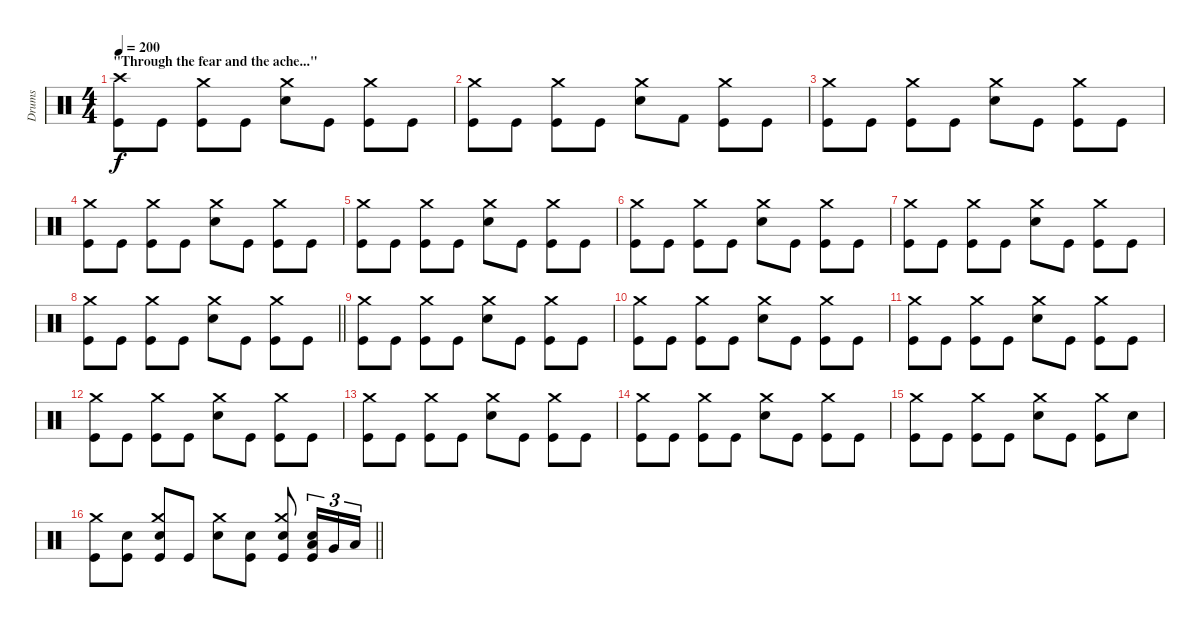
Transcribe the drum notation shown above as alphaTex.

\track ("Drums" "Drums") {instrument percussion}
\staff {score}
\articulation defaults
\ts (4 4)
\section ("" "\"Through the fear and the ache...\"")
\tempo 200
\clef neutral
\ks c
("Crash high (hit)" "Kick (hit)").8{dy f} "Kick (hit)".8 ("Crash medium (hit)" "Kick (hit)").8 "Kick (hit)".8 ("Crash medium (hit)" "Snare (hit) 2").8 "Kick (hit)".8 ("Crash medium (hit)" "Kick (hit)").8 "Kick (hit)".8 |
("Crash medium (hit)" "Kick (hit)").8 "Kick (hit)".8 ("Crash medium (hit)" "Kick (hit)").8 "Kick (hit)".8 ("Crash medium (hit)" "Snare (hit) 2").8 "Kick (hit) 2".8 ("Crash medium (hit)" "Kick (hit)").8 "Kick (hit)".8 |
("Crash medium (hit)" "Kick (hit)").8 "Kick (hit)".8 ("Crash medium (hit)" "Kick (hit)").8 "Kick (hit)".8 ("Crash medium (hit)" "Snare (hit) 2").8 "Kick (hit)".8 ("Crash medium (hit)" "Kick (hit)").8 "Kick (hit)".8 |
("Crash medium (hit)" "Kick (hit)").8 "Kick (hit)".8 ("Crash medium (hit)" "Kick (hit)").8 "Kick (hit)".8 ("Crash medium (hit)" "Snare (hit) 2").8 "Kick (hit)".8 ("Crash medium (hit)" "Kick (hit)").8 "Kick (hit)".8 |
("Crash medium (hit)" "Kick (hit)").8 "Kick (hit)".8 ("Crash medium (hit)" "Kick (hit)").8 "Kick (hit)".8 ("Crash medium (hit)" "Snare (hit) 2").8 "Kick (hit)".8 ("Crash medium (hit)" "Kick (hit)").8 "Kick (hit)".8 |
("Crash medium (hit)" "Kick (hit)").8 "Kick (hit)".8 ("Crash medium (hit)" "Kick (hit)").8 "Kick (hit)".8 ("Crash medium (hit)" "Snare (hit) 2").8 "Kick (hit)".8 ("Crash medium (hit)" "Kick (hit)").8 "Kick (hit)".8 |
("Crash medium (hit)" "Kick (hit)").8 "Kick (hit)".8 ("Crash medium (hit)" "Kick (hit)").8 "Kick (hit)".8 ("Crash medium (hit)" "Snare (hit) 2").8 "Kick (hit)".8 ("Crash medium (hit)" "Kick (hit)").8 "Kick (hit)".8 |
\barLineRight lightlight
("Crash medium (hit)" "Kick (hit)").8 "Kick (hit)".8 ("Crash medium (hit)" "Kick (hit)").8 "Kick (hit)".8 ("Crash medium (hit)" "Snare (hit) 2").8 "Kick (hit)".8 ("Crash medium (hit)" "Kick (hit)").8 "Kick (hit)".8 |
("Crash medium (hit)" "Kick (hit)").8 "Kick (hit)".8 ("Crash medium (hit)" "Kick (hit)").8 "Kick (hit)".8 ("Crash medium (hit)" "Snare (hit) 2").8 "Kick (hit)".8 ("Crash medium (hit)" "Kick (hit)").8 "Kick (hit)".8 |
("Crash medium (hit)" "Kick (hit)").8 "Kick (hit)".8 ("Crash medium (hit)" "Kick (hit)").8 "Kick (hit)".8 ("Crash medium (hit)" "Snare (hit) 2").8 "Kick (hit)".8 ("Crash medium (hit)" "Kick (hit)").8 "Kick (hit)".8 |
("Crash medium (hit)" "Kick (hit)").8 "Kick (hit)".8 ("Crash medium (hit)" "Kick (hit)").8 "Kick (hit)".8 ("Crash medium (hit)" "Snare (hit) 2").8 "Kick (hit)".8 ("Crash medium (hit)" "Kick (hit)").8 "Kick (hit)".8 |
("Crash medium (hit)" "Kick (hit)").8 "Kick (hit)".8 ("Crash medium (hit)" "Kick (hit)").8 "Kick (hit)".8 ("Crash medium (hit)" "Snare (hit) 2").8 "Kick (hit)".8 ("Crash medium (hit)" "Kick (hit)").8 "Kick (hit)".8 |
("Crash medium (hit)" "Kick (hit)").8 "Kick (hit)".8 ("Crash medium (hit)" "Kick (hit)").8 "Kick (hit)".8 ("Crash medium (hit)" "Snare (hit) 2").8 "Kick (hit)".8 ("Crash medium (hit)" "Kick (hit)").8 "Kick (hit)".8 |
("Crash medium (hit)" "Kick (hit)").8 "Kick (hit)".8 ("Crash medium (hit)" "Kick (hit)").8 "Kick (hit)".8 ("Crash medium (hit)" "Snare (hit) 2").8 "Kick (hit)".8 ("Crash medium (hit)" "Kick (hit)").8 "Kick (hit)".8 |
("Crash medium (hit)" "Kick (hit)").8 "Kick (hit)".8 ("Crash medium (hit)" "Kick (hit)").8 "Kick (hit)".8 ("Crash medium (hit)" "Snare (hit) 2").8 "Kick (hit)".8 ("Crash medium (hit)" "Kick (hit)").8 "Snare (hit) 2".8 |
\barLineRight lightlight
("Crash medium (hit)" "Kick (hit)").8 ("Snare (hit) 2" "Kick (hit)").8 ("Crash medium (hit)" "Snare (hit) 2" "Kick (hit)").8 "Kick (hit)".8 ("Crash medium (hit)" "Snare (hit) 2").8 ("Snare (hit) 2" "Kick (hit)").8 ("Crash medium (hit)" "Snare (hit) 2" "Kick (hit)").8 ("Low Tom (hit)" "Snare (hit) 2" "Kick (hit)").16{tu (3 2)} "Very Low Tom (hit)".16{tu (3 2)} "Low Floor Tom (hit)".16{tu (3 2)}
